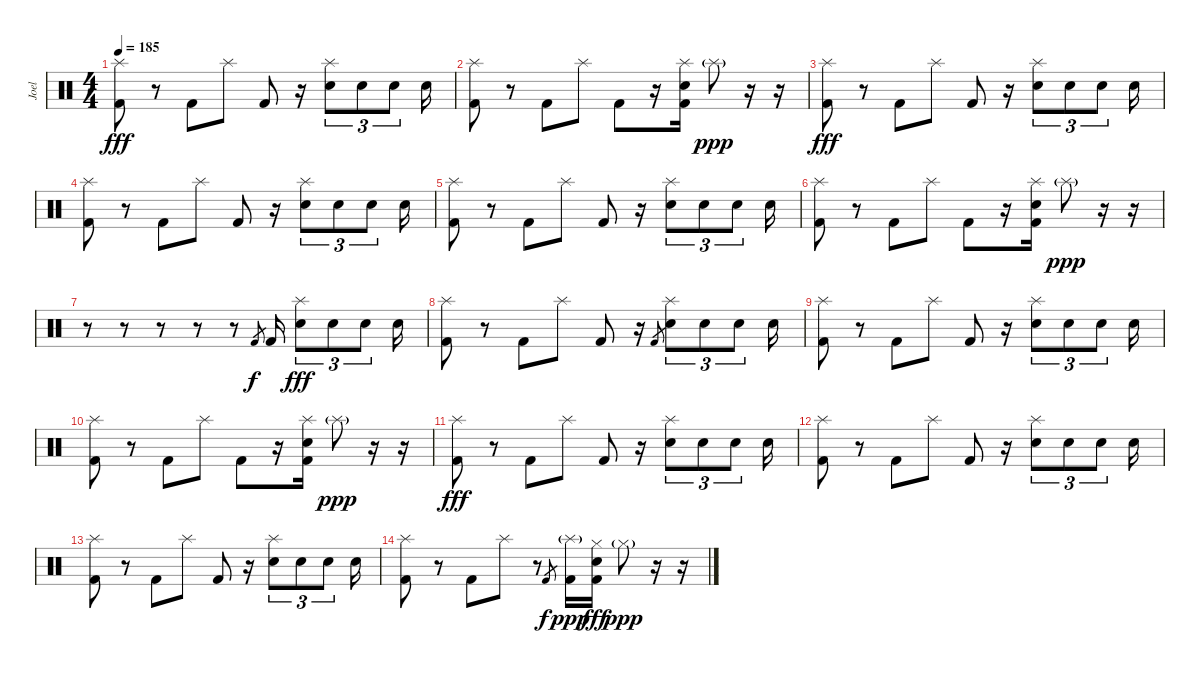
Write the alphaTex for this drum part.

\track ("Joel" "Joel") {instrument percussion}
\staff {score}
\articulation defaults
\ts (4 4)
\tempo 185
\clef neutral
\ks c
("Splash (hit)" "Kick (hit) 2").8{dy fff} r.8 "Kick (hit) 2".8 "Splash (hit)".8 "Kick (hit) 2".8 r.16 ("Splash (hit)" "Electric Snare (hit)").8{tu (3 2)} "Electric Snare (hit)".8{tu (3 2)} "Electric Snare (hit)".8{tu (3 2)} "Electric Snare (hit)".16 |
("Splash (hit)" "Kick (hit) 2").8 r.8 "Kick (hit) 2".8 "Splash (hit)".8 "Kick (hit) 2".8 r.16 ("Splash (hit)" "Kick (hit) 2" "Electric Snare (hit)").16 "Splash (hit)"{g}.8{dy ppp} r.16 r.16 |
("Splash (hit)" "Kick (hit) 2").8{dy fff} r.8 "Kick (hit) 2".8 "Splash (hit)".8 "Kick (hit) 2".8 r.16 ("Splash (hit)" "Electric Snare (hit)").8{tu (3 2)} "Electric Snare (hit)".8{tu (3 2)} "Electric Snare (hit)".8{tu (3 2)} "Electric Snare (hit)".16 |
("Splash (hit)" "Kick (hit) 2").8 r.8 "Kick (hit) 2".8 "Splash (hit)".8 "Kick (hit) 2".8 r.16 ("Splash (hit)" "Electric Snare (hit)").8{tu (3 2)} "Electric Snare (hit)".8{tu (3 2)} "Electric Snare (hit)".8{tu (3 2)} "Electric Snare (hit)".16 |
("Splash (hit)" "Kick (hit) 2").8 r.8 "Kick (hit) 2".8 "Splash (hit)".8 "Kick (hit) 2".8 r.16 ("Splash (hit)" "Electric Snare (hit)").8{tu (3 2)} "Electric Snare (hit)".8{tu (3 2)} "Electric Snare (hit)".8{tu (3 2)} "Electric Snare (hit)".16 |
("Splash (hit)" "Kick (hit) 2").8 r.8 "Kick (hit) 2".8 "Splash (hit)".8 "Kick (hit) 2".8 r.16 ("Splash (hit)" "Kick (hit) 2" "Electric Snare (hit)").16 "Splash (hit)"{g}.8{dy ppp} r.16 r.16 |
r.8 r.8 r.8 r.8 r.8 "Kick (hit) 2".8{gr dy f} "Kick (hit) 2".16 ("Splash (hit)" "Electric Snare (hit)").8{tu (3 2) dy fff} "Electric Snare (hit)".8{tu (3 2)} "Electric Snare (hit)".8{tu (3 2)} "Electric Snare (hit)".16 |
("Splash (hit)" "Kick (hit) 2").8 r.8 "Kick (hit) 2".8 "Splash (hit)".8 "Kick (hit) 2".8 r.16 "Kick (hit) 2".8{gr} ("Splash (hit)" "Electric Snare (hit)").8{tu (3 2)} "Electric Snare (hit)".8{tu (3 2)} "Electric Snare (hit)".8{tu (3 2)} "Electric Snare (hit)".16 |
("Splash (hit)" "Kick (hit) 2").8 r.8 "Kick (hit) 2".8 "Splash (hit)".8 "Kick (hit) 2".8 r.16 ("Splash (hit)" "Electric Snare (hit)").8{tu (3 2)} "Electric Snare (hit)".8{tu (3 2)} "Electric Snare (hit)".8{tu (3 2)} "Electric Snare (hit)".16 |
("Splash (hit)" "Kick (hit) 2").8 r.8 "Kick (hit) 2".8 "Splash (hit)".8 "Kick (hit) 2".8 r.16 ("Splash (hit)" "Kick (hit) 2" "Electric Snare (hit)").16 "Splash (hit)"{g}.8{dy ppp} r.16 r.16 |
("Splash (hit)" "Kick (hit) 2").8{dy fff} r.8 "Kick (hit) 2".8 "Splash (hit)".8 "Kick (hit) 2".8 r.16 ("Splash (hit)" "Electric Snare (hit)").8{tu (3 2)} "Electric Snare (hit)".8{tu (3 2)} "Electric Snare (hit)".8{tu (3 2)} "Electric Snare (hit)".16 |
("Splash (hit)" "Kick (hit) 2").8 r.8 "Kick (hit) 2".8 "Splash (hit)".8 "Kick (hit) 2".8 r.16 ("Splash (hit)" "Electric Snare (hit)").8{tu (3 2)} "Electric Snare (hit)".8{tu (3 2)} "Electric Snare (hit)".8{tu (3 2)} "Electric Snare (hit)".16 |
("Splash (hit)" "Kick (hit) 2").8 r.8 "Kick (hit) 2".8 "Splash (hit)".8 "Kick (hit) 2".8 r.16 ("Splash (hit)" "Electric Snare (hit)").8{tu (3 2)} "Electric Snare (hit)".8{tu (3 2)} "Electric Snare (hit)".8{tu (3 2)} "Electric Snare (hit)".16 |
("Splash (hit)" "Kick (hit) 2").8 r.8 "Kick (hit) 2".8 "Splash (hit)".8 r.8 "Kick (hit) 2".8{gr dy f} ("Splash (hit)"{g} "Kick (hit) 2").16{dy ppp} ("Hi-Hat (closed)" "Kick (hit) 2" "Electric Snare (hit)").16{dy fff} "Hi-Hat (closed)"{g}.8{dy ppp} r.16 r.16
